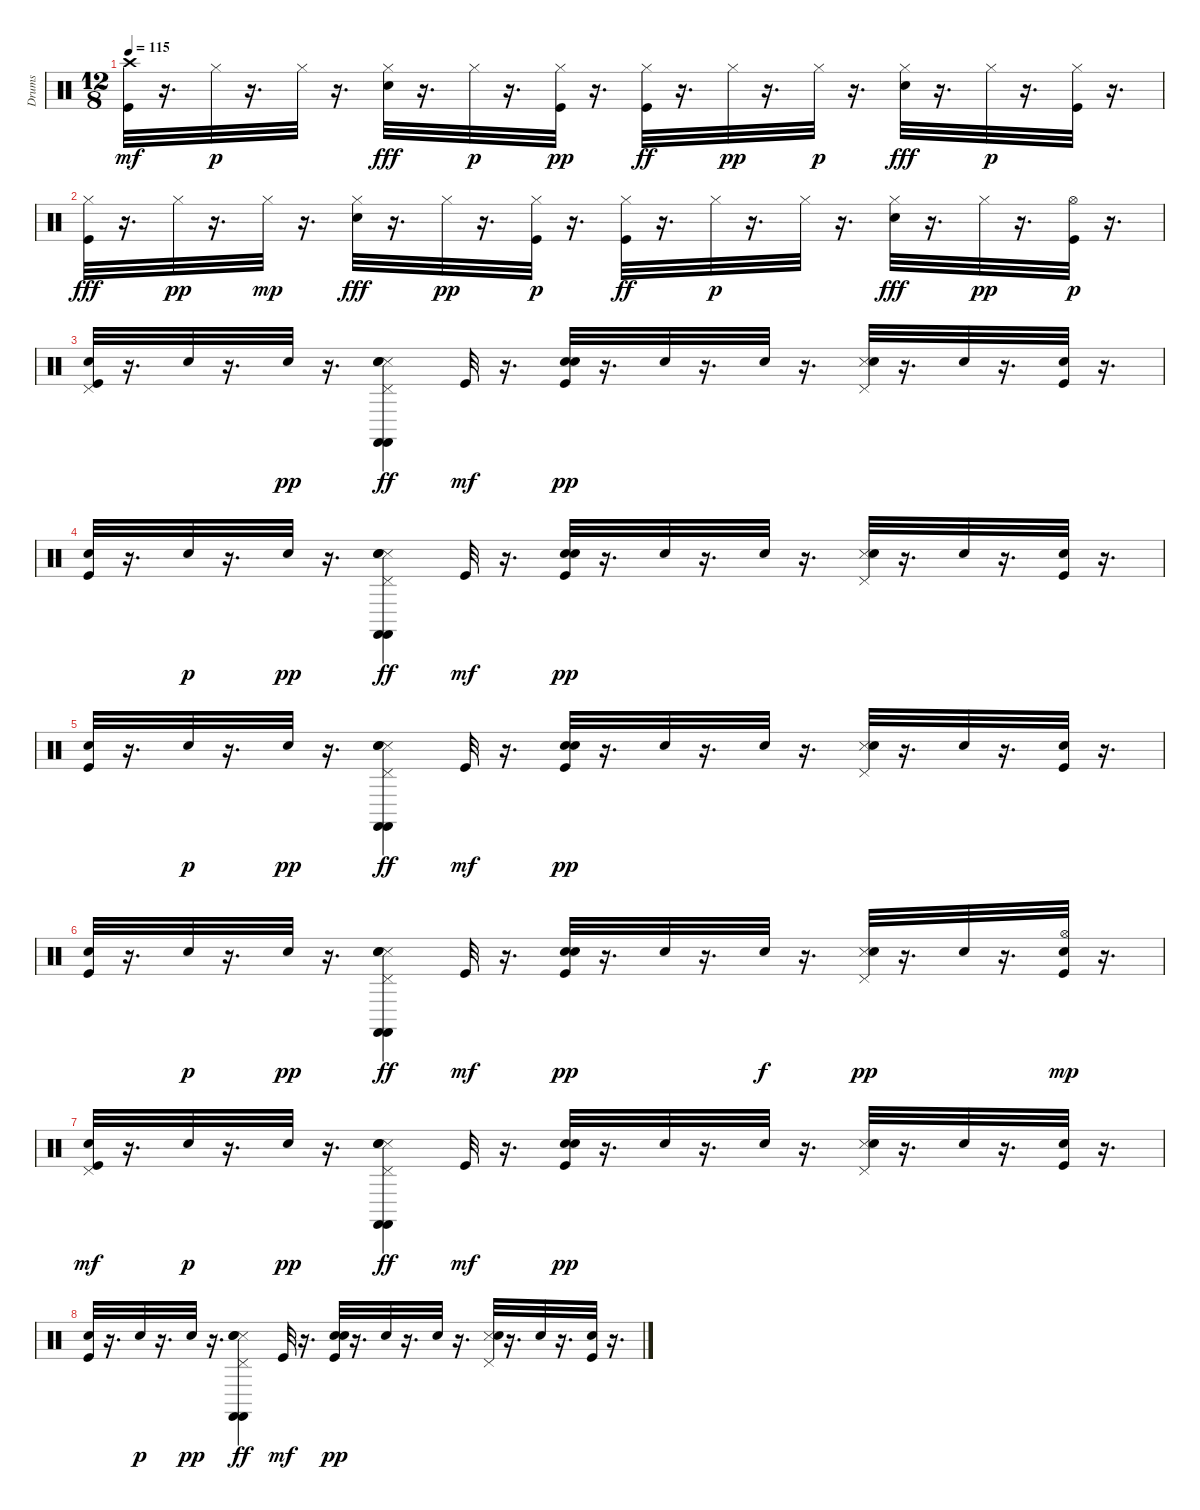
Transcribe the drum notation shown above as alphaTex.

\track ("Drums" "Drums") {instrument percussion}
\staff {score}
\articulation defaults
\ts (12 8)
\tempo 115
\clef neutral
\ks c
("Kick (hit)" "Crash high (hit)").32{dy mf} r.16{d} "Hi-Hat (closed)".32{dy p} r.16{d} "Hi-Hat (closed)".32 r.16{d} ("Electric Snare (hit)" "Hi-Hat (closed)").32{dy fff} r.16{d} "Hi-Hat (closed)".32{dy p} r.16{d} ("Kick (hit)" "Hi-Hat (closed)").32{dy pp} r.16{d} ("Kick (hit)" "Hi-Hat (closed)").32{dy ff} r.16{d} "Hi-Hat (closed)".32{dy pp} r.16{d} "Hi-Hat (closed)".32{dy p} r.16{d} ("Electric Snare (hit)" "Hi-Hat (closed)").32{dy fff} r.16{d} "Hi-Hat (closed)".32{dy p} r.16{d} ("Kick (hit)" "Hi-Hat (closed)").32 r.16{d} |
("Kick (hit)" "Hi-Hat (closed)").32{dy fff} r.16{d} "Hi-Hat (closed)".32{dy pp} r.16{d} "Hi-Hat (closed)".32{dy mp} r.16{d} ("Electric Snare (hit)" "Hi-Hat (closed)").32{dy fff} r.16{d} "Hi-Hat (closed)".32{dy pp} r.16{d} ("Kick (hit)" "Hi-Hat (closed)").32{dy p} r.16{d} ("Kick (hit)" "Hi-Hat (closed)").32{dy ff} r.16{d} "Hi-Hat (closed)".32{dy p} r.16{d} "Hi-Hat (closed)".32 r.16{d} ("Electric Snare (hit)" "Hi-Hat (closed)").32{dy fff} r.16{d} "Hi-Hat (closed)".32{dy pp} r.16{d} ("Kick (hit)" "Hi-Hat (open)").32{dy p} r.16{d} |
("Kick (hit)" "Electric Snare (hit)" "Pedal Hi-Hat (hit)").32 r.16{d} "Snare (hit) 2".32 r.16{d} "Snare (hit) 2".32{dy pp} r.16{d} ("Castanets (hit)" "Snare (side stick) 3" "Snare (hit) 2" "Electric Snare (hit)" "Pedal Hi-Hat (hit)" "Castanets (hit)").4{dy ff} "Kick (hit)".32{dy mf} r.16{d} ("Kick (hit)" "Snare (hit) 2" "Electric Snare (hit)").32{dy pp} r.16{d} "Snare (hit) 2".32 r.16{d} "Snare (hit) 2".32 r.16{d} ("Snare (side stick) 3" "Electric Snare (hit)" "Pedal Hi-Hat (hit)").32 r.16{d} "Snare (hit) 2".32 r.16{d} ("Kick (hit)" "Snare (hit) 2").32 r.16{d} |
("Kick (hit)" "Electric Snare (hit)").32 r.16{d} "Snare (hit) 2".32{dy p} r.16{d} "Snare (hit) 2".32{dy pp} r.16{d} ("Castanets (hit)" "Snare (side stick) 3" "Snare (hit) 2" "Electric Snare (hit)" "Pedal Hi-Hat (hit)" "Castanets (hit)").4{dy ff} "Kick (hit)".32{dy mf} r.16{d} ("Kick (hit)" "Snare (hit) 2" "Electric Snare (hit)").32{dy pp} r.16{d} "Snare (hit) 2".32 r.16{d} "Snare (hit) 2".32 r.16{d} ("Snare (side stick) 3" "Electric Snare (hit)" "Pedal Hi-Hat (hit)").32 r.16{d} "Snare (hit) 2".32 r.16{d} ("Kick (hit)" "Snare (hit) 2").32 r.16{d} |
("Kick (hit)" "Electric Snare (hit)").32 r.16{d} "Snare (hit) 2".32{dy p} r.16{d} "Snare (hit) 2".32{dy pp} r.16{d} ("Castanets (hit)" "Snare (side stick) 3" "Snare (hit) 2" "Electric Snare (hit)" "Pedal Hi-Hat (hit)" "Castanets (hit)").4{dy ff} "Kick (hit)".32{dy mf} r.16{d} ("Kick (hit)" "Snare (hit) 2" "Electric Snare (hit)").32{dy pp} r.16{d} "Snare (hit) 2".32 r.16{d} "Snare (hit) 2".32 r.16{d} ("Snare (side stick) 3" "Electric Snare (hit)" "Pedal Hi-Hat (hit)").32 r.16{d} "Snare (hit) 2".32 r.16{d} ("Kick (hit)" "Snare (hit) 2").32 r.16{d} |
("Kick (hit)" "Electric Snare (hit)").32 r.16{d} "Snare (hit) 2".32{dy p} r.16{d} "Snare (hit) 2".32{dy pp} r.16{d} ("Castanets (hit)" "Snare (side stick) 3" "Snare (hit) 2" "Electric Snare (hit)" "Pedal Hi-Hat (hit)" "Castanets (hit)").4{dy ff} "Kick (hit)".32{dy mf} r.16{d} ("Kick (hit)" "Snare (hit) 2" "Electric Snare (hit)").32{dy pp} r.16{d} "Snare (hit) 2".32 r.16{d} "Snare (hit) 2".32{dy f} r.16{d} ("Snare (side stick) 3" "Electric Snare (hit)" "Pedal Hi-Hat (hit)").32{dy pp} r.16{d} "Snare (hit) 2".32 r.16{d} ("Kick (hit)" "Snare (hit) 2" "Hi-Hat (open)").32{dy mp} r.16{d} |
("Kick (hit)" "Electric Snare (hit)" "Pedal Hi-Hat (hit)").32{dy mf} r.16{d} "Snare (hit) 2".32{dy p} r.16{d} "Snare (hit) 2".32{dy pp} r.16{d} ("Castanets (hit)" "Snare (side stick) 3" "Snare (hit) 2" "Electric Snare (hit)" "Pedal Hi-Hat (hit)" "Castanets (hit)").4{dy ff} "Kick (hit)".32{dy mf} r.16{d} ("Kick (hit)" "Snare (hit) 2" "Electric Snare (hit)").32{dy pp} r.16{d} "Snare (hit) 2".32 r.16{d} "Snare (hit) 2".32 r.16{d} ("Snare (side stick) 3" "Electric Snare (hit)" "Pedal Hi-Hat (hit)").32 r.16{d} "Snare (hit) 2".32 r.16{d} ("Kick (hit)" "Snare (hit) 2").32 r.16{d} |
("Kick (hit)" "Electric Snare (hit)").32 r.16{d} "Snare (hit) 2".32{dy p} r.16{d} "Snare (hit) 2".32{dy pp} r.16{d} ("Castanets (hit)" "Snare (side stick) 3" "Snare (hit) 2" "Electric Snare (hit)" "Pedal Hi-Hat (hit)" "Castanets (hit)").4{dy ff} "Kick (hit)".32{dy mf} r.16{d} ("Kick (hit)" "Snare (hit) 2" "Electric Snare (hit)").32{dy pp} r.16{d} "Snare (hit) 2".32 r.16{d} "Snare (hit) 2".32 r.16{d} ("Snare (side stick) 3" "Electric Snare (hit)" "Pedal Hi-Hat (hit)").32 r.16{d} "Snare (hit) 2".32 r.16{d} ("Kick (hit)" "Snare (hit) 2").32 r.16{d}
